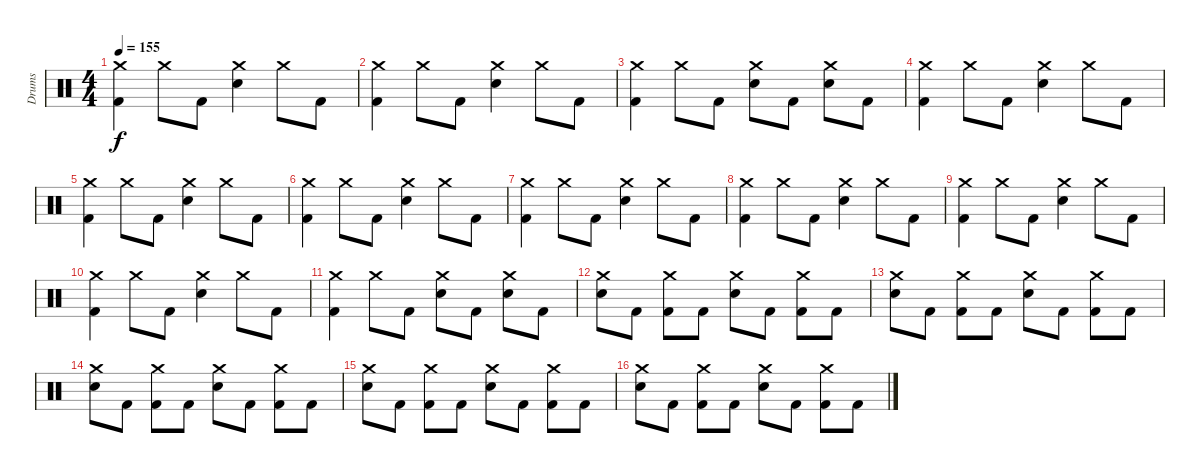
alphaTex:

\track ("Drums" "Drums") {instrument percussion bank 255}
\staff {score}
\articulation defaults
\ts (4 4)
\tempo 155
\clef neutral
\ks c
("Crash medium (hit)" "Kick (hit) 2").4{dy f} "Crash medium (hit)".8 "Kick (hit) 2".8 ("Crash medium (hit)" "Electric Snare (hit)").4 "Crash medium (hit)".8 "Kick (hit) 2".8 |
("Crash medium (hit)" "Kick (hit) 2").4 "Crash medium (hit)".8 "Kick (hit) 2".8 ("Crash medium (hit)" "Electric Snare (hit)").4 "Crash medium (hit)".8 "Kick (hit) 2".8 |
("Crash medium (hit)" "Kick (hit) 2").4 "Crash medium (hit)".8 "Kick (hit) 2".8 ("Crash medium (hit)" "Electric Snare (hit)").8 "Kick (hit) 2".8 ("Crash medium (hit)" "Electric Snare (hit)").8 "Kick (hit) 2".8 |
("Crash medium (hit)" "Kick (hit) 2").4 "Crash medium (hit)".8 "Kick (hit) 2".8 ("Crash medium (hit)" "Electric Snare (hit)").4 "Crash medium (hit)".8 "Kick (hit) 2".8 |
("Crash medium (hit)" "Kick (hit) 2").4 "Crash medium (hit)".8 "Kick (hit) 2".8 ("Crash medium (hit)" "Electric Snare (hit)").4 "Crash medium (hit)".8 "Kick (hit) 2".8 |
("Crash medium (hit)" "Kick (hit) 2").4 "Crash medium (hit)".8 "Kick (hit) 2".8 ("Crash medium (hit)" "Electric Snare (hit)").4 "Crash medium (hit)".8 "Kick (hit) 2".8 |
("Crash medium (hit)" "Kick (hit) 2").4 "Crash medium (hit)".8 "Kick (hit) 2".8 ("Crash medium (hit)" "Electric Snare (hit)").4 "Crash medium (hit)".8 "Kick (hit) 2".8 |
("Crash medium (hit)" "Kick (hit) 2").4 "Crash medium (hit)".8 "Kick (hit) 2".8 ("Crash medium (hit)" "Electric Snare (hit)").4 "Crash medium (hit)".8 "Kick (hit) 2".8 |
("Crash medium (hit)" "Kick (hit) 2").4 "Crash medium (hit)".8 "Kick (hit) 2".8 ("Crash medium (hit)" "Electric Snare (hit)").4 "Crash medium (hit)".8 "Kick (hit) 2".8 |
("Crash medium (hit)" "Kick (hit) 2").4 "Crash medium (hit)".8 "Kick (hit) 2".8 ("Crash medium (hit)" "Electric Snare (hit)").4 "Crash medium (hit)".8 "Kick (hit) 2".8 |
("Crash medium (hit)" "Kick (hit) 2").4 "Crash medium (hit)".8 "Kick (hit) 2".8 ("Crash medium (hit)" "Electric Snare (hit)").8 "Kick (hit) 2".8 ("Crash medium (hit)" "Electric Snare (hit)").8 "Kick (hit) 2".8 |
("Crash medium (hit)" "Electric Snare (hit)").8 "Kick (hit) 2".8 ("Crash medium (hit)" "Kick (hit) 2").8 "Kick (hit) 2".8 ("Crash medium (hit)" "Electric Snare (hit)").8 "Kick (hit) 2".8 ("Crash medium (hit)" "Kick (hit) 2").8 "Kick (hit) 2".8 |
("Crash medium (hit)" "Electric Snare (hit)").8 "Kick (hit) 2".8 ("Crash medium (hit)" "Kick (hit) 2").8 "Kick (hit) 2".8 ("Crash medium (hit)" "Electric Snare (hit)").8 "Kick (hit) 2".8 ("Crash medium (hit)" "Kick (hit) 2").8 "Kick (hit) 2".8 |
("Crash medium (hit)" "Electric Snare (hit)").8 "Kick (hit) 2".8 ("Crash medium (hit)" "Kick (hit) 2").8 "Kick (hit) 2".8 ("Crash medium (hit)" "Electric Snare (hit)").8 "Kick (hit) 2".8 ("Crash medium (hit)" "Kick (hit) 2").8 "Kick (hit) 2".8 |
("Crash medium (hit)" "Electric Snare (hit)").8 "Kick (hit) 2".8 ("Crash medium (hit)" "Kick (hit) 2").8 "Kick (hit) 2".8 ("Crash medium (hit)" "Electric Snare (hit)").8 "Kick (hit) 2".8 ("Crash medium (hit)" "Kick (hit) 2").8 "Kick (hit) 2".8 |
("Crash medium (hit)" "Electric Snare (hit)").8 "Kick (hit) 2".8 ("Crash medium (hit)" "Kick (hit) 2").8 "Kick (hit) 2".8 ("Crash medium (hit)" "Electric Snare (hit)").8 "Kick (hit) 2".8 ("Crash medium (hit)" "Kick (hit) 2").8 "Kick (hit) 2".8
